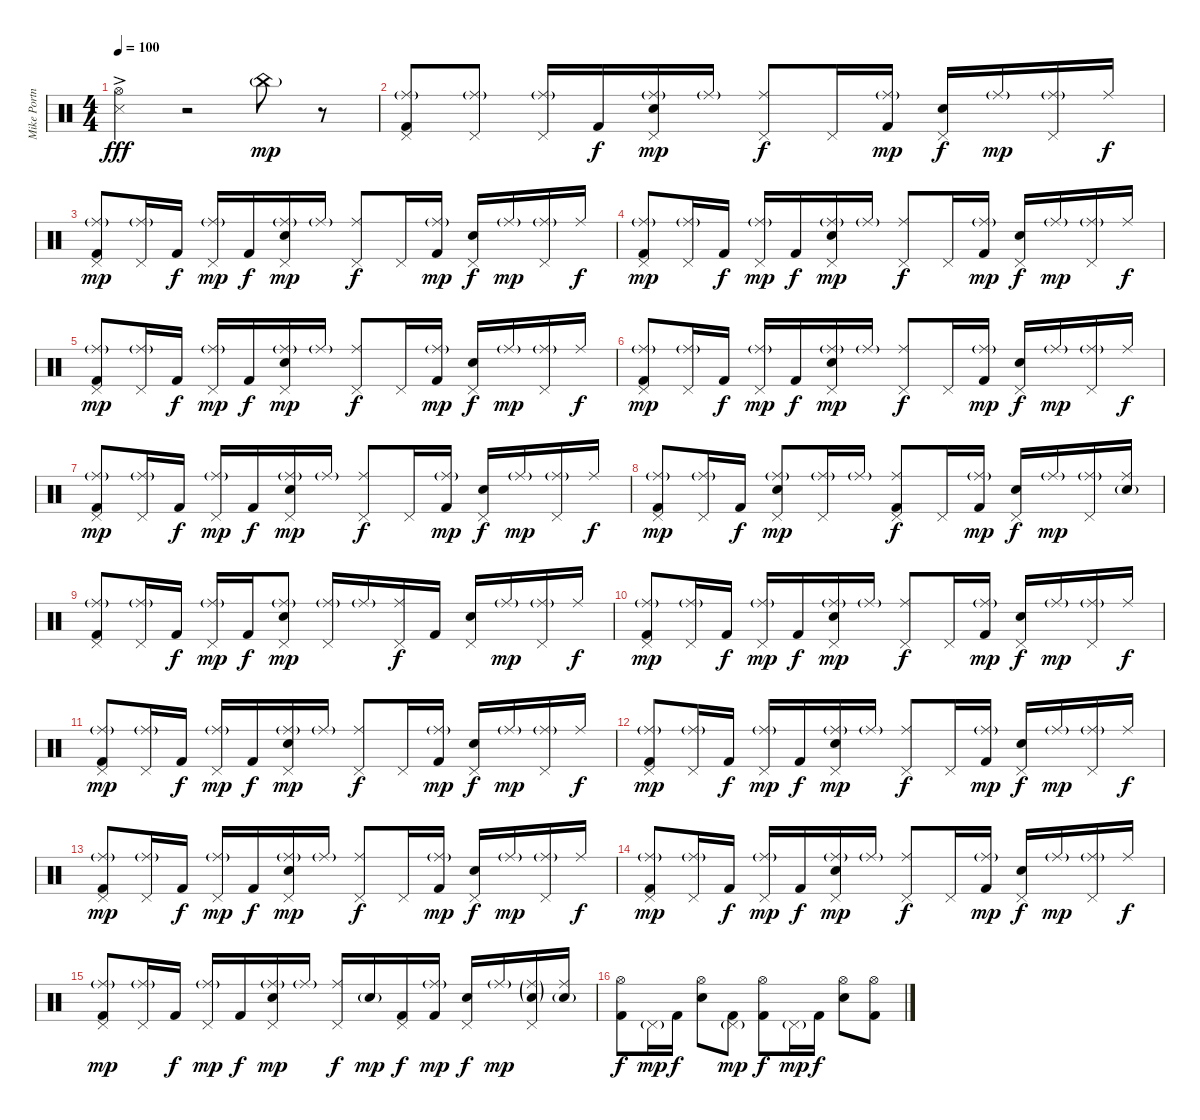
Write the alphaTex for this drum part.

\track ("Mike Portnoy" "Mike Portn") {instrument percussion}
\staff {score}
\articulation defaults
\ts (4 4)
\tempo 100
\clef neutral
\ks c
("Hi-Hat (open)"{ac} "Snare (side stick) 3"{ac}).4{dy fff} r.2 "China (hit)"{g}.8{dy mp} r.8 |
("Ride (middle)"{g} "Pedal Hi-Hat (hit)" "Kick (hit) 2").8 ("Ride (middle)"{g} "Pedal Hi-Hat (hit)").8 ("Ride (middle)"{g} "Pedal Hi-Hat (hit)").16 "Kick (hit) 2".16{dy f} ("Ride (middle)"{g} "Pedal Hi-Hat (hit)" "Electric Snare (hit)").16{dy mp} "Ride (middle)"{g}.16 ("Ride (middle)" "Pedal Hi-Hat (hit)").8{dy f} "Pedal Hi-Hat (hit)".16 ("Ride (middle)"{g} "Kick (hit) 2").16{dy mp} ("Pedal Hi-Hat (hit)" "Electric Snare (hit)").16{dy f} "Ride (middle)"{g}.16{dy mp} ("Ride (middle)"{g} "Pedal Hi-Hat (hit)").16 "Ride (middle)".16{dy f} |
("Ride (middle)"{g} "Pedal Hi-Hat (hit)" "Kick (hit) 2").8{dy mp} ("Ride (middle)"{g} "Pedal Hi-Hat (hit)").16 "Kick (hit) 2".16{dy f} ("Ride (middle)"{g} "Pedal Hi-Hat (hit)").16{dy mp} "Kick (hit) 2".16{dy f} ("Ride (middle)"{g} "Pedal Hi-Hat (hit)" "Electric Snare (hit)").16{dy mp} "Ride (middle)"{g}.16 ("Ride (middle)" "Pedal Hi-Hat (hit)").8{dy f} "Pedal Hi-Hat (hit)".16 ("Ride (middle)"{g} "Kick (hit) 2").16{dy mp} ("Pedal Hi-Hat (hit)" "Electric Snare (hit)").16{dy f} "Ride (middle)"{g}.16{dy mp} ("Ride (middle)"{g} "Pedal Hi-Hat (hit)").16 "Ride (middle)".16{dy f} |
("Ride (middle)"{g} "Pedal Hi-Hat (hit)" "Kick (hit) 2").8{dy mp} ("Ride (middle)"{g} "Pedal Hi-Hat (hit)").16 "Kick (hit) 2".16{dy f} ("Ride (middle)"{g} "Pedal Hi-Hat (hit)").16{dy mp} "Kick (hit) 2".16{dy f} ("Ride (middle)"{g} "Pedal Hi-Hat (hit)" "Electric Snare (hit)").16{dy mp} "Ride (middle)"{g}.16 ("Ride (middle)" "Pedal Hi-Hat (hit)").8{dy f} "Pedal Hi-Hat (hit)".16 ("Ride (middle)"{g} "Kick (hit) 2").16{dy mp} ("Pedal Hi-Hat (hit)" "Electric Snare (hit)").16{dy f} "Ride (middle)"{g}.16{dy mp} ("Ride (middle)"{g} "Pedal Hi-Hat (hit)").16 "Ride (middle)".16{dy f} |
("Ride (middle)"{g} "Pedal Hi-Hat (hit)" "Kick (hit) 2").8{dy mp} ("Ride (middle)"{g} "Pedal Hi-Hat (hit)").16 "Kick (hit) 2".16{dy f} ("Ride (middle)"{g} "Pedal Hi-Hat (hit)").16{dy mp} "Kick (hit) 2".16{dy f} ("Ride (middle)"{g} "Pedal Hi-Hat (hit)" "Electric Snare (hit)").16{dy mp} "Ride (middle)"{g}.16 ("Ride (middle)" "Pedal Hi-Hat (hit)").8{dy f} "Pedal Hi-Hat (hit)".16 ("Ride (middle)"{g} "Kick (hit) 2").16{dy mp} ("Pedal Hi-Hat (hit)" "Electric Snare (hit)").16{dy f} "Ride (middle)"{g}.16{dy mp} ("Ride (middle)"{g} "Pedal Hi-Hat (hit)").16 "Ride (middle)".16{dy f} |
("Ride (middle)"{g} "Pedal Hi-Hat (hit)" "Kick (hit) 2").8{dy mp} ("Ride (middle)"{g} "Pedal Hi-Hat (hit)").16 "Kick (hit) 2".16{dy f} ("Ride (middle)"{g} "Pedal Hi-Hat (hit)").16{dy mp} "Kick (hit) 2".16{dy f} ("Ride (middle)"{g} "Pedal Hi-Hat (hit)" "Electric Snare (hit)").16{dy mp} "Ride (middle)"{g}.16 ("Ride (middle)" "Pedal Hi-Hat (hit)").8{dy f} "Pedal Hi-Hat (hit)".16 ("Ride (middle)"{g} "Kick (hit) 2").16{dy mp} ("Pedal Hi-Hat (hit)" "Electric Snare (hit)").16{dy f} "Ride (middle)"{g}.16{dy mp} ("Ride (middle)"{g} "Pedal Hi-Hat (hit)").16 "Ride (middle)".16{dy f} |
("Ride (middle)"{g} "Pedal Hi-Hat (hit)" "Kick (hit) 2").8{dy mp} ("Ride (middle)"{g} "Pedal Hi-Hat (hit)").16 "Kick (hit) 2".16{dy f} ("Ride (middle)"{g} "Pedal Hi-Hat (hit)").16{dy mp} "Kick (hit) 2".16{dy f} ("Ride (middle)"{g} "Pedal Hi-Hat (hit)" "Electric Snare (hit)").16{dy mp} "Ride (middle)"{g}.16 ("Ride (middle)" "Pedal Hi-Hat (hit)").8{dy f} "Pedal Hi-Hat (hit)".16 ("Ride (middle)"{g} "Kick (hit) 2").16{dy mp} ("Pedal Hi-Hat (hit)" "Electric Snare (hit)").16{dy f} "Ride (middle)"{g}.16{dy mp} ("Ride (middle)"{g} "Pedal Hi-Hat (hit)").16 "Ride (middle)".16{dy f} |
("Ride (middle)"{g} "Pedal Hi-Hat (hit)" "Kick (hit) 2").8{dy mp} ("Ride (middle)"{g} "Pedal Hi-Hat (hit)").16 "Kick (hit) 2".16{dy f} ("Ride (middle)"{g} "Pedal Hi-Hat (hit)" "Electric Snare (hit)").8{dy mp} ("Ride (middle)"{g} "Pedal Hi-Hat (hit)").16 "Ride (middle)"{g}.16 ("Ride (middle)" "Pedal Hi-Hat (hit)" "Kick (hit) 2").8{dy f} "Pedal Hi-Hat (hit)".16 ("Ride (middle)"{g} "Kick (hit) 2").16{dy mp} ("Pedal Hi-Hat (hit)" "Electric Snare (hit)").16{dy f} "Ride (middle)"{g}.16{dy mp} ("Ride (middle)"{g} "Pedal Hi-Hat (hit)").16 ("Ride (middle)" "Electric Snare (hit)"{g}).16 |
("Ride (middle)"{g} "Pedal Hi-Hat (hit)" "Kick (hit) 2").8 ("Ride (middle)"{g} "Pedal Hi-Hat (hit)").16 "Kick (hit) 2".16{dy f} ("Ride (middle)"{g} "Pedal Hi-Hat (hit)").16{dy mp} "Kick (hit) 2".16{dy f} ("Ride (middle)"{g} "Pedal Hi-Hat (hit)" "Electric Snare (hit)").8{dy mp} ("Ride (middle)"{g} "Pedal Hi-Hat (hit)").16 "Ride (middle)"{g}.16 ("Ride (middle)" "Pedal Hi-Hat (hit)").16{dy f} "Kick (hit) 2".16 ("Pedal Hi-Hat (hit)" "Electric Snare (hit)").16 "Ride (middle)"{g}.16{dy mp} ("Ride (middle)"{g} "Pedal Hi-Hat (hit)").16 "Ride (middle)".16{dy f} |
("Ride (middle)"{g} "Pedal Hi-Hat (hit)" "Kick (hit) 2").8{dy mp} ("Ride (middle)"{g} "Pedal Hi-Hat (hit)").16 "Kick (hit) 2".16{dy f} ("Ride (middle)"{g} "Pedal Hi-Hat (hit)").16{dy mp} "Kick (hit) 2".16{dy f} ("Ride (middle)"{g} "Pedal Hi-Hat (hit)" "Electric Snare (hit)").16{dy mp} "Ride (middle)"{g}.16 ("Ride (middle)" "Pedal Hi-Hat (hit)").8{dy f} "Pedal Hi-Hat (hit)".16 ("Ride (middle)"{g} "Kick (hit) 2").16{dy mp} ("Pedal Hi-Hat (hit)" "Electric Snare (hit)").16{dy f} "Ride (middle)"{g}.16{dy mp} ("Ride (middle)"{g} "Pedal Hi-Hat (hit)").16 "Ride (middle)".16{dy f} |
("Ride (middle)"{g} "Pedal Hi-Hat (hit)" "Kick (hit) 2").8{dy mp} ("Ride (middle)"{g} "Pedal Hi-Hat (hit)").16 "Kick (hit) 2".16{dy f} ("Ride (middle)"{g} "Pedal Hi-Hat (hit)").16{dy mp} "Kick (hit) 2".16{dy f} ("Ride (middle)"{g} "Pedal Hi-Hat (hit)" "Electric Snare (hit)").16{dy mp} "Ride (middle)"{g}.16 ("Ride (middle)" "Pedal Hi-Hat (hit)").8{dy f} "Pedal Hi-Hat (hit)".16 ("Ride (middle)"{g} "Kick (hit) 2").16{dy mp} ("Pedal Hi-Hat (hit)" "Electric Snare (hit)").16{dy f} "Ride (middle)"{g}.16{dy mp} ("Ride (middle)"{g} "Pedal Hi-Hat (hit)").16 "Ride (middle)".16{dy f} |
("Ride (middle)"{g} "Pedal Hi-Hat (hit)" "Kick (hit) 2").8{dy mp} ("Ride (middle)"{g} "Pedal Hi-Hat (hit)").16 "Kick (hit) 2".16{dy f} ("Ride (middle)"{g} "Pedal Hi-Hat (hit)").16{dy mp} "Kick (hit) 2".16{dy f} ("Ride (middle)"{g} "Pedal Hi-Hat (hit)" "Electric Snare (hit)").16{dy mp} "Ride (middle)"{g}.16 ("Ride (middle)" "Pedal Hi-Hat (hit)").8{dy f} "Pedal Hi-Hat (hit)".16 ("Ride (middle)"{g} "Kick (hit) 2").16{dy mp} ("Pedal Hi-Hat (hit)" "Electric Snare (hit)").16{dy f} "Ride (middle)"{g}.16{dy mp} ("Ride (middle)"{g} "Pedal Hi-Hat (hit)").16 "Ride (middle)".16{dy f} |
("Ride (middle)"{g} "Pedal Hi-Hat (hit)" "Kick (hit) 2").8{dy mp} ("Ride (middle)"{g} "Pedal Hi-Hat (hit)").16 "Kick (hit) 2".16{dy f} ("Ride (middle)"{g} "Pedal Hi-Hat (hit)").16{dy mp} "Kick (hit) 2".16{dy f} ("Ride (middle)"{g} "Pedal Hi-Hat (hit)" "Electric Snare (hit)").16{dy mp} "Ride (middle)"{g}.16 ("Ride (middle)" "Pedal Hi-Hat (hit)").8{dy f} "Pedal Hi-Hat (hit)".16 ("Ride (middle)"{g} "Kick (hit) 2").16{dy mp} ("Pedal Hi-Hat (hit)" "Electric Snare (hit)").16{dy f} "Ride (middle)"{g}.16{dy mp} ("Ride (middle)"{g} "Pedal Hi-Hat (hit)").16 "Ride (middle)".16{dy f} |
("Ride (middle)"{g} "Pedal Hi-Hat (hit)" "Kick (hit) 2").8{dy mp} ("Ride (middle)"{g} "Pedal Hi-Hat (hit)").16 "Kick (hit) 2".16{dy f} ("Ride (middle)"{g} "Pedal Hi-Hat (hit)").16{dy mp} "Kick (hit) 2".16{dy f} ("Ride (middle)"{g} "Pedal Hi-Hat (hit)" "Electric Snare (hit)").16{dy mp} "Ride (middle)"{g}.16 ("Ride (middle)" "Pedal Hi-Hat (hit)").8{dy f} "Pedal Hi-Hat (hit)".16 ("Ride (middle)"{g} "Kick (hit) 2").16{dy mp} ("Pedal Hi-Hat (hit)" "Electric Snare (hit)").16{dy f} "Ride (middle)"{g}.16{dy mp} ("Ride (middle)"{g} "Pedal Hi-Hat (hit)").16 "Ride (middle)".16{dy f} |
("Ride (middle)"{g} "Pedal Hi-Hat (hit)" "Kick (hit) 2").8{dy mp} ("Ride (middle)"{g} "Pedal Hi-Hat (hit)").16 "Kick (hit) 2".16{dy f} ("Ride (middle)"{g} "Pedal Hi-Hat (hit)").16{dy mp} "Kick (hit) 2".16{dy f} ("Ride (middle)"{g} "Pedal Hi-Hat (hit)" "Electric Snare (hit)").16{dy mp} "Ride (middle)"{g}.16 ("Ride (middle)" "Pedal Hi-Hat (hit)").16{dy f} "Electric Snare (hit)"{g}.16{dy mp} ("Pedal Hi-Hat (hit)" "Kick (hit) 2").16{dy f} ("Ride (middle)"{g} "Kick (hit) 2").16{dy mp} ("Pedal Hi-Hat (hit)" "Electric Snare (hit)").16{dy f} "Ride (middle)"{g}.16{dy mp} ("Ride (middle)"{g} "Pedal Hi-Hat (hit)" "Electric Snare (hit)"{g}).16 ("Ride (middle)" "Electric Snare (hit)"{g}).16 |
("Hi-Hat (open)" "Kick (hit) 2").8{dy f} "Pedal Hi-Hat (hit)"{g}.16{dy mp} "Kick (hit) 2".16{dy f} ("Hi-Hat (open)" "Electric Snare (hit)").8 ("Pedal Hi-Hat (hit)"{g} "Kick (hit) 2").8{dy mp} ("Hi-Hat (open)" "Kick (hit) 2").8{dy f} "Pedal Hi-Hat (hit)"{g}.16{dy mp} "Kick (hit) 2".16{dy f} ("Hi-Hat (open)" "Electric Snare (hit)").8 ("Hi-Hat (open)" "Kick (hit) 2").8
